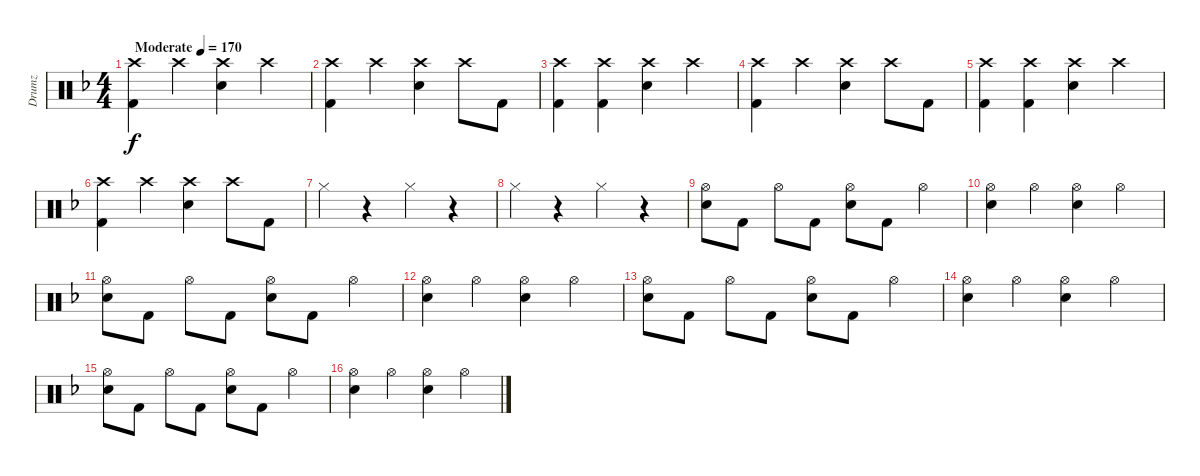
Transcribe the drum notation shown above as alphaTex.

\track ("Drumz" "Drumz") {instrument percussion}
\staff {score}
\articulation defaults
\ts (4 4)
\tempo (170 "Moderate")
\clef neutral
\ks dminor
("Crash high (hit)" "Kick (hit) 2").4{dy f} "Crash high (hit)".4 ("Crash high (hit)" "Snare (hit) 2").4 "Crash high (hit)".4 |
("Crash high (hit)" "Kick (hit) 2").4 "Crash high (hit)".4 ("Crash high (hit)" "Snare (hit) 2").4 "Crash high (hit)".8 "Kick (hit) 2".8 |
("Crash high (hit)" "Kick (hit) 2").4 ("Crash high (hit)" "Kick (hit) 2").4 ("Crash high (hit)" "Snare (hit) 2").4 "Crash high (hit)".4 |
("Crash high (hit)" "Kick (hit) 2").4 "Crash high (hit)".4 ("Crash high (hit)" "Snare (hit) 2").4 "Crash high (hit)".8 "Kick (hit) 2".8 |
("Crash high (hit)" "Kick (hit) 2").4 ("Crash high (hit)" "Kick (hit) 2").4 ("Crash high (hit)" "Snare (hit) 2").4 "Crash high (hit)".4 |
("Crash high (hit)" "Kick (hit) 2").4 "Crash high (hit)".4 ("Crash high (hit)" "Snare (hit) 2").4 "Crash high (hit)".8 "Kick (hit) 2".8 |
"Hi-Hat (closed)".4 r.4 "Hi-Hat (closed)".4 r.4 |
"Hi-Hat (closed)".4 r.4 "Hi-Hat (closed)".4 r.4 |
("Hi-Hat (open)" "Snare (hit) 2").8 "Kick (hit) 2".8 "Hi-Hat (open)".8 "Kick (hit) 2".8 ("Hi-Hat (open)" "Snare (hit) 2").8 "Kick (hit) 2".8 "Hi-Hat (open)".4 |
("Hi-Hat (open)" "Snare (hit) 2").4 "Hi-Hat (open)".4 ("Hi-Hat (open)" "Snare (hit) 2").4 "Hi-Hat (open)".4 |
("Hi-Hat (open)" "Snare (hit) 2").8 "Kick (hit) 2".8 "Hi-Hat (open)".8 "Kick (hit) 2".8 ("Hi-Hat (open)" "Snare (hit) 2").8 "Kick (hit) 2".8 "Hi-Hat (open)".4 |
("Hi-Hat (open)" "Snare (hit) 2").4 "Hi-Hat (open)".4 ("Hi-Hat (open)" "Snare (hit) 2").4 "Hi-Hat (open)".4 |
("Hi-Hat (open)" "Snare (hit) 2").8 "Kick (hit) 2".8 "Hi-Hat (open)".8 "Kick (hit) 2".8 ("Hi-Hat (open)" "Snare (hit) 2").8 "Kick (hit) 2".8 "Hi-Hat (open)".4 |
("Hi-Hat (open)" "Snare (hit) 2").4 "Hi-Hat (open)".4 ("Hi-Hat (open)" "Snare (hit) 2").4 "Hi-Hat (open)".4 |
("Hi-Hat (open)" "Snare (hit) 2").8 "Kick (hit) 2".8 "Hi-Hat (open)".8 "Kick (hit) 2".8 ("Hi-Hat (open)" "Snare (hit) 2").8 "Kick (hit) 2".8 "Hi-Hat (open)".4 |
("Hi-Hat (open)" "Snare (hit) 2").4 "Hi-Hat (open)".4 ("Hi-Hat (open)" "Snare (hit) 2").4 "Hi-Hat (open)".4
